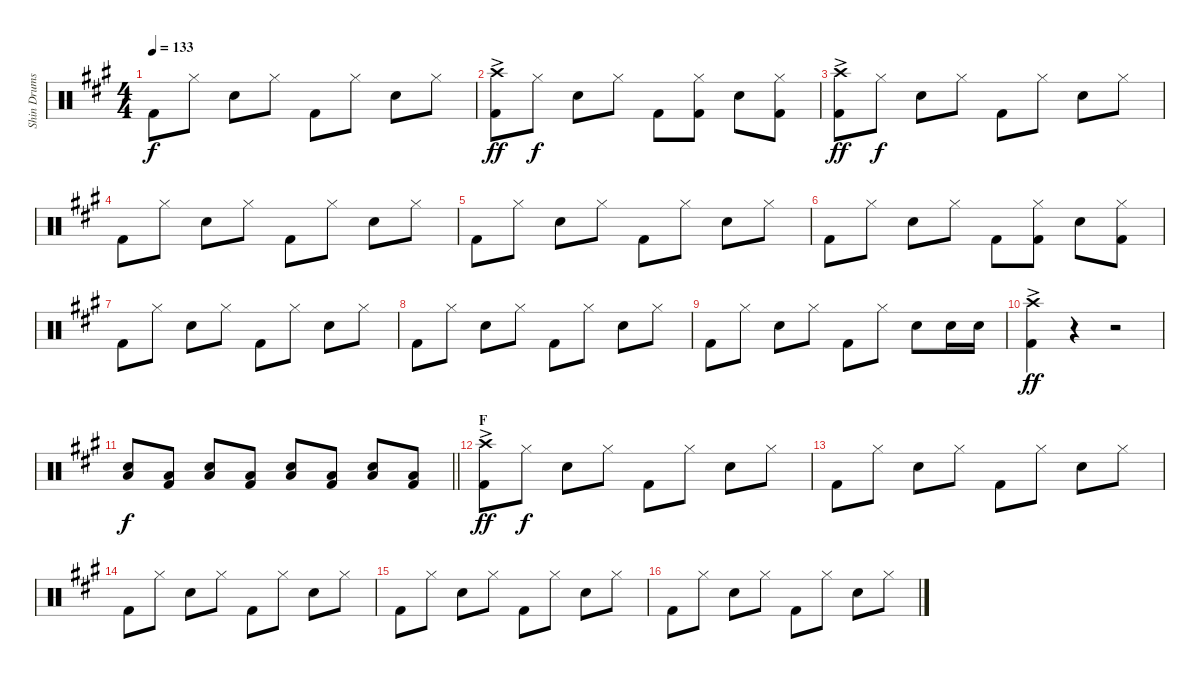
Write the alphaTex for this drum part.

\track ("Shin Drums" "Shin Drums") {instrument percussion}
\staff {score}
\articulation defaults
\ts (4 4)
\tempo 133
\clef neutral
\ks a "Kick (hit) 2".8{dy f} "Hi-Hat (closed)".8 "Snare (hit) 2".8 "Hi-Hat (closed)".8 "Kick (hit) 2".8 "Hi-Hat (closed)".8 "Snare (hit) 2".8 "Hi-Hat (closed)".8
|
("Crash high (hit)"{ac} "Kick (hit) 2").8{dy ff} "Hi-Hat (closed)".8{dy f} "Snare (hit) 2".8 "Hi-Hat (closed)".8 "Kick (hit) 2".8 ("Hi-Hat (closed)" "Kick (hit) 2").8 "Snare (hit) 2".8 ("Hi-Hat (closed)" "Kick (hit) 2").8 |
("Crash high (hit)"{ac} "Kick (hit) 2").8{dy ff} "Hi-Hat (closed)".8{dy f} "Snare (hit) 2".8 "Hi-Hat (closed)".8 "Kick (hit) 2".8 "Hi-Hat (closed)".8 "Snare (hit) 2".8 "Hi-Hat (closed)".8 |
"Kick (hit) 2".8 "Hi-Hat (closed)".8 "Snare (hit) 2".8 "Hi-Hat (closed)".8 "Kick (hit) 2".8 "Hi-Hat (closed)".8 "Snare (hit) 2".8 "Hi-Hat (closed)".8 |
"Kick (hit) 2".8 "Hi-Hat (closed)".8 "Snare (hit) 2".8 "Hi-Hat (closed)".8 "Kick (hit) 2".8 "Hi-Hat (closed)".8 "Snare (hit) 2".8 "Hi-Hat (closed)".8 |
"Kick (hit) 2".8 "Hi-Hat (closed)".8 "Snare (hit) 2".8 "Hi-Hat (closed)".8 "Kick (hit) 2".8 ("Hi-Hat (closed)" "Kick (hit) 2").8 "Snare (hit) 2".8 ("Hi-Hat (closed)" "Kick (hit) 2").8 |
"Kick (hit) 2".8 "Hi-Hat (closed)".8 "Snare (hit) 2".8 "Hi-Hat (closed)".8 "Kick (hit) 2".8 "Hi-Hat (closed)".8 "Snare (hit) 2".8 "Hi-Hat (closed)".8 |
"Kick (hit) 2".8 "Hi-Hat (closed)".8 "Snare (hit) 2".8 "Hi-Hat (closed)".8 "Kick (hit) 2".8 "Hi-Hat (closed)".8 "Snare (hit) 2".8 "Hi-Hat (closed)".8 |
"Kick (hit) 2".8 "Hi-Hat (closed)".8 "Snare (hit) 2".8 "Hi-Hat (closed)".8 "Kick (hit) 2".8 "Hi-Hat (closed)".8 "Snare (hit) 2".8 "Snare (hit) 2".16 "Snare (hit) 2".16 |
("Crash high (hit)"{ac} "Kick (hit) 2").4{dy ff} r.4 r.2 |
\barLineRight lightlight
("Snare (hit) 2" "Low Floor Tom (hit)").8{dy f} ("Low Floor Tom (hit)" "Kick (hit) 2").8 ("Snare (hit) 2" "Low Floor Tom (hit)").8 ("Low Floor Tom (hit)" "Kick (hit) 2").8 ("Snare (hit) 2" "Low Floor Tom (hit)").8 ("Low Floor Tom (hit)" "Kick (hit) 2").8 ("Snare (hit) 2" "Low Floor Tom (hit)").8 ("Low Floor Tom (hit)" "Kick (hit) 2").8 |
\section ("" "F")
("Crash high (hit)"{ac} "Kick (hit) 2").8{dy ff} "Hi-Hat (closed)".8{dy f} "Snare (hit) 2".8 "Hi-Hat (closed)".8 "Kick (hit) 2".8 "Hi-Hat (closed)".8 "Snare (hit) 2".8 "Hi-Hat (closed)".8 |
"Kick (hit) 2".8 "Hi-Hat (closed)".8 "Snare (hit) 2".8 "Hi-Hat (closed)".8 "Kick (hit) 2".8 "Hi-Hat (closed)".8 "Snare (hit) 2".8 "Hi-Hat (closed)".8 |
"Kick (hit) 2".8 "Hi-Hat (closed)".8 "Snare (hit) 2".8 "Hi-Hat (closed)".8 "Kick (hit) 2".8 "Hi-Hat (closed)".8 "Snare (hit) 2".8 "Hi-Hat (closed)".8 |
"Kick (hit) 2".8 "Hi-Hat (closed)".8 "Snare (hit) 2".8 "Hi-Hat (closed)".8 "Kick (hit) 2".8 "Hi-Hat (closed)".8 "Snare (hit) 2".8 "Hi-Hat (closed)".8 |
"Kick (hit) 2".8 "Hi-Hat (closed)".8 "Snare (hit) 2".8 "Hi-Hat (closed)".8 "Kick (hit) 2".8 "Hi-Hat (closed)".8 "Snare (hit) 2".8 "Hi-Hat (closed)".8
